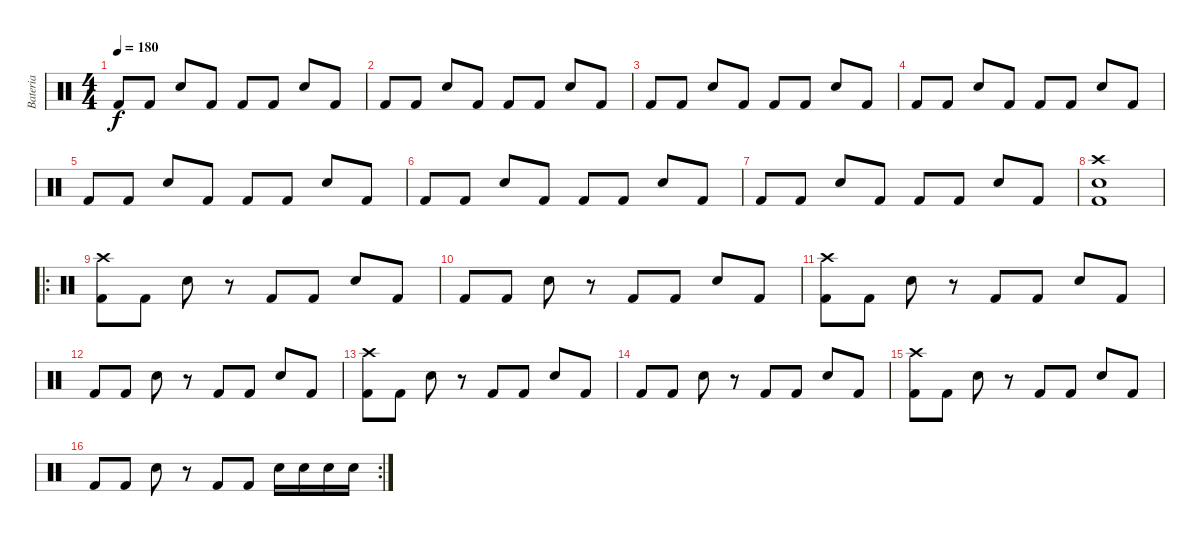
\track ("Bateria" "Bateria") {instrument percussion}
\staff {score}
\articulation defaults
\ts (4 4)
\tempo 180
\clef neutral
\ks c "Kick (hit) 2".8{dy f} "Kick (hit) 2".8 "Electric Snare (hit)".8 "Kick (hit) 2".8 "Kick (hit) 2".8 "Kick (hit) 2".8 "Electric Snare (hit)".8 "Kick (hit) 2".8
|
"Kick (hit) 2".8 "Kick (hit) 2".8 "Electric Snare (hit)".8 "Kick (hit) 2".8 "Kick (hit) 2".8 "Kick (hit) 2".8 "Electric Snare (hit)".8 "Kick (hit) 2".8 |
"Kick (hit) 2".8 "Kick (hit) 2".8 "Electric Snare (hit)".8 "Kick (hit) 2".8 "Kick (hit) 2".8 "Kick (hit) 2".8 "Electric Snare (hit)".8 "Kick (hit) 2".8 |
"Kick (hit) 2".8 "Kick (hit) 2".8 "Electric Snare (hit)".8 "Kick (hit) 2".8 "Kick (hit) 2".8 "Kick (hit) 2".8 "Electric Snare (hit)".8 "Kick (hit) 2".8 |
"Kick (hit) 2".8 "Kick (hit) 2".8 "Electric Snare (hit)".8 "Kick (hit) 2".8 "Kick (hit) 2".8 "Kick (hit) 2".8 "Electric Snare (hit)".8 "Kick (hit) 2".8 |
"Kick (hit) 2".8 "Kick (hit) 2".8 "Electric Snare (hit)".8 "Kick (hit) 2".8 "Kick (hit) 2".8 "Kick (hit) 2".8 "Electric Snare (hit)".8 "Kick (hit) 2".8 |
"Kick (hit) 2".8 "Kick (hit) 2".8 "Electric Snare (hit)".8 "Kick (hit) 2".8 "Kick (hit) 2".8 "Kick (hit) 2".8 "Electric Snare (hit)".8 "Kick (hit) 2".8 |
("Kick (hit) 2" "Electric Snare (hit)" "Crash high (hit)").1 |
\ro
("Kick (hit) 2" "Crash high (hit)").8 "Kick (hit) 2".8 "Electric Snare (hit)".8 r.8 "Kick (hit) 2".8 "Kick (hit) 2".8 "Electric Snare (hit)".8 "Kick (hit) 2".8 |
"Kick (hit) 2".8 "Kick (hit) 2".8 "Electric Snare (hit)".8 r.8 "Kick (hit) 2".8 "Kick (hit) 2".8 "Electric Snare (hit)".8 "Kick (hit) 2".8 |
("Kick (hit) 2" "Crash high (hit)").8 "Kick (hit) 2".8 "Electric Snare (hit)".8 r.8 "Kick (hit) 2".8 "Kick (hit) 2".8 "Electric Snare (hit)".8 "Kick (hit) 2".8 |
"Kick (hit) 2".8 "Kick (hit) 2".8 "Electric Snare (hit)".8 r.8 "Kick (hit) 2".8 "Kick (hit) 2".8 "Electric Snare (hit)".8 "Kick (hit) 2".8 |
("Kick (hit) 2" "Crash high (hit)").8 "Kick (hit) 2".8 "Electric Snare (hit)".8 r.8 "Kick (hit) 2".8 "Kick (hit) 2".8 "Electric Snare (hit)".8 "Kick (hit) 2".8 |
"Kick (hit) 2".8 "Kick (hit) 2".8 "Electric Snare (hit)".8 r.8 "Kick (hit) 2".8 "Kick (hit) 2".8 "Electric Snare (hit)".8 "Kick (hit) 2".8 |
("Kick (hit) 2" "Crash high (hit)").8 "Kick (hit) 2".8 "Electric Snare (hit)".8 r.8 "Kick (hit) 2".8 "Kick (hit) 2".8 "Electric Snare (hit)".8 "Kick (hit) 2".8 |
\rc 2 "Kick (hit) 2".8 "Kick (hit) 2".8 "Electric Snare (hit)".8
r.8 "Kick (hit) 2".8 "Kick (hit) 2".8 "Electric Snare (hit)".16 "Electric Snare (hit)".16 "Electric Snare (hit)".16 "Electric Snare (hit)".16
